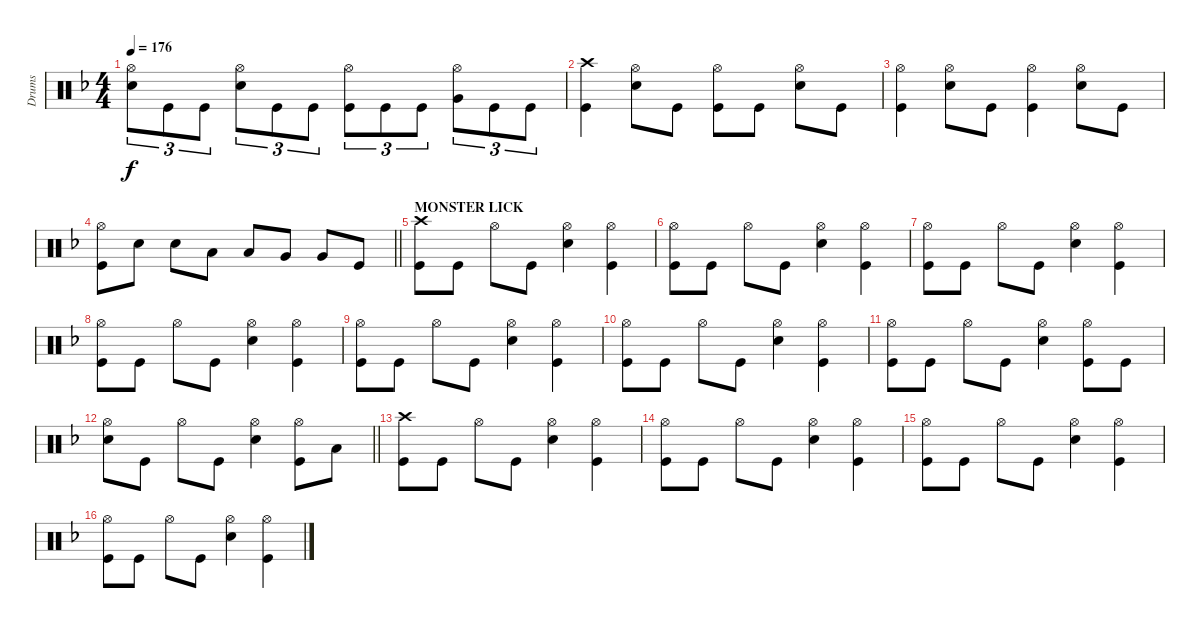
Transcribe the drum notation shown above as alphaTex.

\track ("Drums" "Drums") {instrument percussion}
\staff {score}
\articulation defaults
\ts (4 4)
\tempo 176
\clef neutral
\ks f
("Hi-Hat (open)" "Snare (hit) 2").8{tu (3 2) dy f} "Kick (hit)".8{tu (3 2)} "Kick (hit)".8{tu (3 2)} ("Hi-Hat (open)" "Snare (hit) 2").8{tu (3 2)} "Kick (hit)".8{tu (3 2)} "Kick (hit)".8{tu (3 2)} ("Hi-Hat (open)" "Kick (hit)").8{tu (3 2)} "Kick (hit)".8{tu (3 2)} "Kick (hit)".8{tu (3 2)} ("Hi-Hat (open)" "Very Low Tom (hit)").8{tu (3 2)} "Kick (hit)".8{tu (3 2)} "Kick (hit)".8{tu (3 2)} |
("Crash high (hit)" "Kick (hit)").4 ("Hi-Hat (open)" "Snare (hit) 2").8 "Kick (hit)".8 ("Hi-Hat (open)" "Kick (hit)").8 "Kick (hit)".8 ("Hi-Hat (open)" "Snare (hit) 2").8 "Kick (hit)".8 |
("Hi-Hat (open)" "Kick (hit)").4 ("Hi-Hat (open)" "Snare (hit) 2").8 "Kick (hit)".8 ("Hi-Hat (open)" "Kick (hit)").4 ("Hi-Hat (open)" "Snare (hit) 2").8 "Kick (hit)".8 |
\barLineRight lightlight
("Hi-Hat (open)" "Kick (hit)").8 "Snare (hit) 2".8 "Snare (hit) 2".8 "Low Tom (hit)".8 "Low Tom (hit)".8 "Very Low Tom (hit)".8 "Very Low Tom (hit)".8 "Kick (hit)".8 |
\section ("" "MONSTER LICK")
("Crash high (hit)" "Kick (hit)").8 "Kick (hit)".8 "Hi-Hat (open)".8 "Kick (hit)".8 ("Hi-Hat (open)" "Snare (hit) 2").4 ("Hi-Hat (open)" "Kick (hit)").4 |
("Hi-Hat (open)" "Kick (hit)").8 "Kick (hit)".8 "Hi-Hat (open)".8 "Kick (hit)".8 ("Hi-Hat (open)" "Snare (hit) 2").4 ("Hi-Hat (open)" "Kick (hit)").4 |
("Hi-Hat (open)" "Kick (hit)").8 "Kick (hit)".8 "Hi-Hat (open)".8 "Kick (hit)".8 ("Hi-Hat (open)" "Snare (hit) 2").4 ("Hi-Hat (open)" "Kick (hit)").4 |
("Hi-Hat (open)" "Kick (hit)").8 "Kick (hit)".8 "Hi-Hat (open)".8 "Kick (hit)".8 ("Hi-Hat (open)" "Snare (hit) 2").4 ("Hi-Hat (open)" "Kick (hit)").4 |
("Hi-Hat (open)" "Kick (hit)").8 "Kick (hit)".8 "Hi-Hat (open)".8 "Kick (hit)".8 ("Hi-Hat (open)" "Snare (hit) 2").4 ("Hi-Hat (open)" "Kick (hit)").4 |
("Hi-Hat (open)" "Kick (hit)").8 "Kick (hit)".8 "Hi-Hat (open)".8 "Kick (hit)".8 ("Hi-Hat (open)" "Snare (hit) 2").4 ("Hi-Hat (open)" "Kick (hit)").4 |
("Hi-Hat (open)" "Kick (hit)").8 "Kick (hit)".8 "Hi-Hat (open)".8 "Kick (hit)".8 ("Hi-Hat (open)" "Snare (hit) 2").4 ("Hi-Hat (open)" "Kick (hit)").8 "Kick (hit)".8 |
\barLineRight lightlight
("Hi-Hat (open)" "Snare (hit) 2").8 "Kick (hit)".8 "Hi-Hat (open)".8 "Kick (hit)".8 ("Hi-Hat (open)" "Snare (hit) 2").4 ("Hi-Hat (open)" "Kick (hit)").8 "Low Floor Tom (hit)".8 |
("Crash high (hit)" "Kick (hit)").8 "Kick (hit)".8 "Hi-Hat (open)".8 "Kick (hit)".8 ("Hi-Hat (open)" "Snare (hit) 2").4 ("Hi-Hat (open)" "Kick (hit)").4 |
("Hi-Hat (open)" "Kick (hit)").8 "Kick (hit)".8 "Hi-Hat (open)".8 "Kick (hit)".8 ("Hi-Hat (open)" "Snare (hit) 2").4 ("Hi-Hat (open)" "Kick (hit)").4 |
("Hi-Hat (open)" "Kick (hit)").8 "Kick (hit)".8 "Hi-Hat (open)".8 "Kick (hit)".8 ("Hi-Hat (open)" "Snare (hit) 2").4 ("Hi-Hat (open)" "Kick (hit)").4 |
("Hi-Hat (open)" "Kick (hit)").8 "Kick (hit)".8 "Hi-Hat (open)".8 "Kick (hit)".8 ("Hi-Hat (open)" "Snare (hit) 2").4 ("Hi-Hat (open)" "Kick (hit)").4
